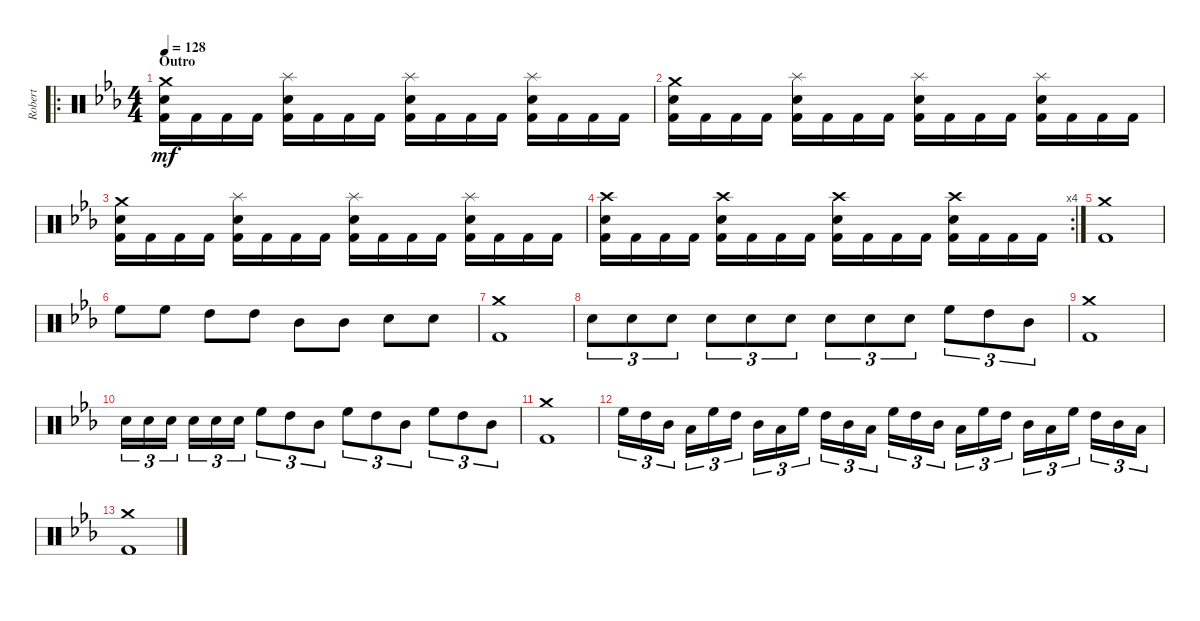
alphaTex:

\track ("Robert" "Robert") {instrument percussion}
\staff {score}
\articulation defaults
\ro
\ts (4 4)
\section ("" "Outro")
\tempo 128
\clef neutral
\ks cminor
("Crash medium (hit)" "Snare (hit) 2" "Kick (hit) 2").16{dy mf} "Kick (hit) 2".16 "Kick (hit) 2".16 "Kick (hit) 2".16 ("Splash (hit)" "Snare (hit) 2" "Kick (hit) 2").16 "Kick (hit) 2".16 "Kick (hit) 2".16 "Kick (hit) 2".16 ("Splash (hit)" "Snare (hit) 2" "Kick (hit) 2").16 "Kick (hit) 2".16 "Kick (hit) 2".16 "Kick (hit) 2".16 ("Splash (hit)" "Snare (hit) 2" "Kick (hit) 2").16 "Kick (hit) 2".16 "Kick (hit) 2".16 "Kick (hit) 2".16 |
("Crash medium (hit)" "Snare (hit) 2" "Kick (hit) 2").16 "Kick (hit) 2".16 "Kick (hit) 2".16 "Kick (hit) 2".16 ("Splash (hit)" "Snare (hit) 2" "Kick (hit) 2").16 "Kick (hit) 2".16 "Kick (hit) 2".16 "Kick (hit) 2".16 ("Splash (hit)" "Snare (hit) 2" "Kick (hit) 2").16 "Kick (hit) 2".16 "Kick (hit) 2".16 "Kick (hit) 2".16 ("Splash (hit)" "Snare (hit) 2" "Kick (hit) 2").16 "Kick (hit) 2".16 "Kick (hit) 2".16 "Kick (hit) 2".16 |
("Crash medium (hit)" "Snare (hit) 2" "Kick (hit) 2").16 "Kick (hit) 2".16 "Kick (hit) 2".16 "Kick (hit) 2".16 ("Splash (hit)" "Snare (hit) 2" "Kick (hit) 2").16 "Kick (hit) 2".16 "Kick (hit) 2".16 "Kick (hit) 2".16 ("Splash (hit)" "Snare (hit) 2" "Kick (hit) 2").16 "Kick (hit) 2".16 "Kick (hit) 2".16 "Kick (hit) 2".16 ("Splash (hit)" "Snare (hit) 2" "Kick (hit) 2").16 "Kick (hit) 2".16 "Kick (hit) 2".16 "Kick (hit) 2".16 |
\rc 4
("Crash high (hit)" "Snare (hit) 2" "Kick (hit) 2").16 "Kick (hit) 2".16 "Kick (hit) 2".16 "Kick (hit) 2".16 ("Crash high (hit)" "Snare (hit) 2" "Kick (hit) 2").16 "Kick (hit) 2".16 "Kick (hit) 2".16 "Kick (hit) 2".16 ("Crash high (hit)" "Snare (hit) 2" "Kick (hit) 2").16 "Kick (hit) 2".16 "Kick (hit) 2".16 "Kick (hit) 2".16 ("Crash high (hit)" "Snare (hit) 2" "Kick (hit) 2").16 "Kick (hit) 2".16 "Kick (hit) 2".16 "Kick (hit) 2".16 |
("Crash medium (hit)" "Kick (hit) 2").1 |
"High Floor Tom (hit)".8 "High Floor Tom (hit)".8 "High Tom (hit)".8 "High Tom (hit)".8 "Mid Tom (hit)".8 "Mid Tom (hit)".8 "Snare (hit) 2".8 "Snare (hit) 2".8 |
("Crash medium (hit)" "Kick (hit) 2").1 |
"Snare (hit) 2".8{tu (3 2)} "Snare (hit) 2".8{tu (3 2)} "Snare (hit) 2".8{tu (3 2)} "Snare (hit) 2".8{tu (3 2)} "Snare (hit) 2".8{tu (3 2)} "Snare (hit) 2".8{tu (3 2)} "Snare (hit) 2".8{tu (3 2)} "Snare (hit) 2".8{tu (3 2)} "Snare (hit) 2".8{tu (3 2)} "High Floor Tom (hit)".8{tu (3 2)} "High Tom (hit)".8{tu (3 2)} "Mid Tom (hit)".8{tu (3 2)} |
("Crash medium (hit)" "Kick (hit) 2").1 |
"Snare (hit) 2".16{tu (3 2)} "Snare (hit) 2".16{tu (3 2)} "Snare (hit) 2".16{tu (3 2) beam splitsecondary} "Snare (hit) 2".16{tu (3 2)} "Snare (hit) 2".16{tu (3 2)} "Snare (hit) 2".16{tu (3 2)} "High Floor Tom (hit)".8{tu (3 2)} "High Tom (hit)".8{tu (3 2)} "Mid Tom (hit)".8{tu (3 2)} "High Floor Tom (hit)".8{tu (3 2)} "High Tom (hit)".8{tu (3 2)} "Mid Tom (hit)".8{tu (3 2)} "High Floor Tom (hit)".8{tu (3 2)} "High Tom (hit)".8{tu (3 2)} "Mid Tom (hit)".8{tu (3 2)} |
("Crash medium (hit)" "Kick (hit) 2").1 |
"High Floor Tom (hit)".16{tu (3 2)} "High Tom (hit)".16{tu (3 2)} "Mid Tom (hit)".16{tu (3 2) beam splitsecondary} "Low Tom (hit)".16{tu (3 2)} "High Floor Tom (hit)".16{tu (3 2)} "High Tom (hit)".16{tu (3 2)} "Mid Tom (hit)".16{tu (3 2)} "Low Tom (hit)".16{tu (3 2)} "High Floor Tom (hit)".16{tu (3 2) beam splitsecondary} "High Tom (hit)".16{tu (3 2)} "Mid Tom (hit)".16{tu (3 2)} "Low Tom (hit)".16{tu (3 2)} "High Floor Tom (hit)".16{tu (3 2)} "High Tom (hit)".16{tu (3 2)} "Mid Tom (hit)".16{tu (3 2) beam splitsecondary} "Low Tom (hit)".16{tu (3 2)} "High Floor Tom (hit)".16{tu (3 2)} "High Tom (hit)".16{tu (3 2)} "Mid Tom (hit)".16{tu (3 2)} "Low Tom (hit)".16{tu (3 2)} "High Floor Tom (hit)".16{tu (3 2) beam splitsecondary} "High Tom (hit)".16{tu (3 2)} "Mid Tom (hit)".16{tu (3 2)} "Low Tom (hit)".16{tu (3 2)} |
("Crash medium (hit)" "Kick (hit) 2").1
